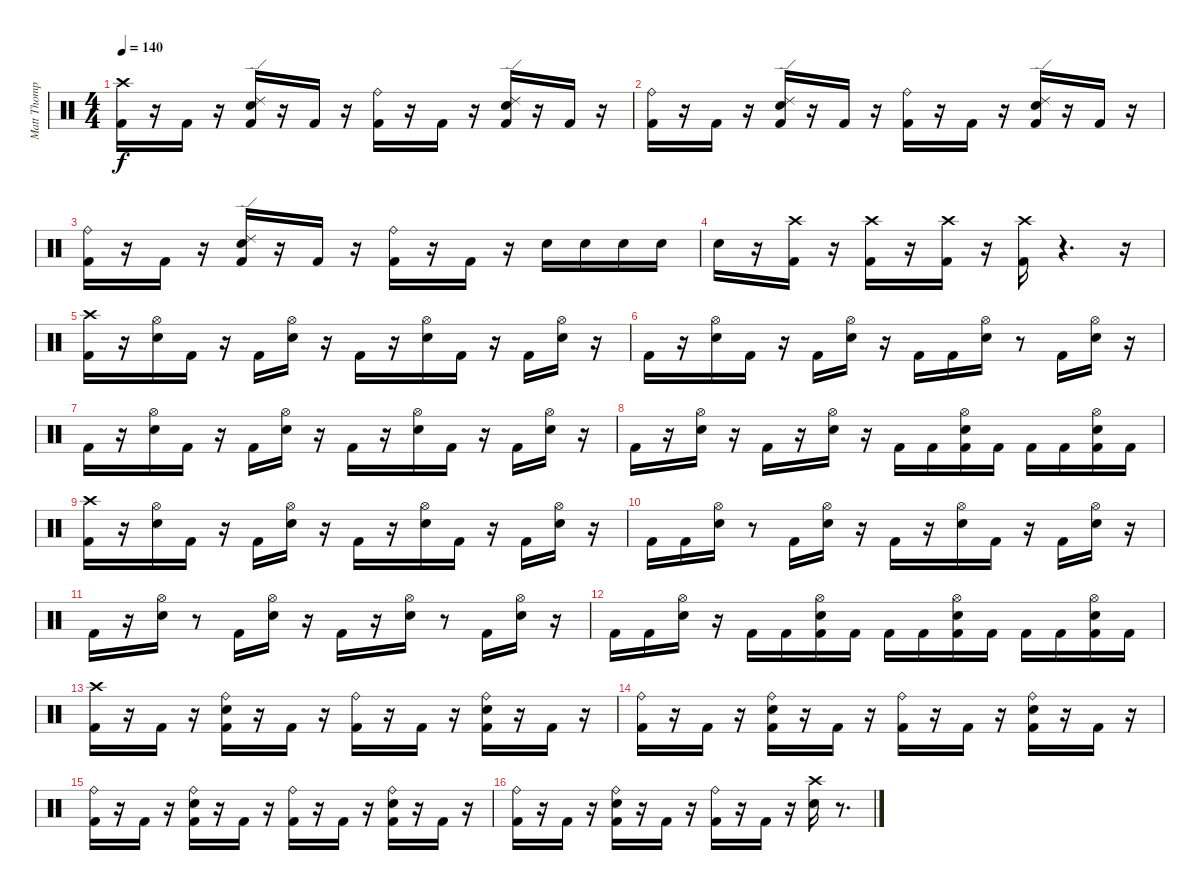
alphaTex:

\track ("Matt Thompson" "Matt Thomp") {instrument percussion}
\staff {score}
\articulation defaults
\ts (4 4)
\tempo 140
\clef neutral
\ks c
("Crash high (hit)" "Kick (hit) 2").16{dy f} r.16 "Kick (hit) 2".16 r.16 ("Ride (edge) 2" "Snare (hit) 2" "Kick (hit) 2").16 r.16 "Kick (hit) 2".16 r.16 ("Ride (bell)" "Kick (hit) 2").16 r.16 "Kick (hit) 2".16 r.16 ("Ride (edge) 2" "Snare (hit) 2" "Kick (hit) 2").16 r.16 "Kick (hit) 2".16 r.16 |
("Ride (bell)" "Kick (hit) 2").16 r.16 "Kick (hit) 2".16 r.16 ("Ride (edge) 2" "Snare (hit) 2" "Kick (hit) 2").16 r.16 "Kick (hit) 2".16 r.16 ("Ride (bell)" "Kick (hit) 2").16 r.16 "Kick (hit) 2".16 r.16 ("Ride (edge) 2" "Snare (hit) 2" "Kick (hit) 2").16 r.16 "Kick (hit) 2".16 r.16 |
("Ride (bell)" "Kick (hit) 2").16 r.16 "Kick (hit) 2".16 r.16 ("Ride (edge) 2" "Snare (hit) 2" "Kick (hit) 2").16 r.16 "Kick (hit) 2".16 r.16 ("Ride (bell)" "Kick (hit) 2").16 r.16 "Kick (hit) 2".16 r.16 "Snare (hit) 2".16 "Snare (hit) 2".16 "Snare (hit) 2".16 "Snare (hit) 2".16 |
"Snare (hit) 2".16 r.16 ("Crash high (hit)" "Kick (hit) 2").16 r.16 ("Crash high (hit)" "Kick (hit) 2").16 r.16 ("Crash high (hit)" "Kick (hit) 2").16 r.16 ("Crash high (hit)" "Kick (hit) 2").16 r.4{d} r.16 |
("Crash high (hit)" "Kick (hit) 2").16 r.16 ("Hi-Hat (open)" "Snare (hit) 2").16 "Kick (hit) 2".16 r.16 "Kick (hit) 2".16 ("Hi-Hat (open)" "Snare (hit) 2").16 r.16 "Kick (hit) 2".16 r.16 ("Hi-Hat (open)" "Snare (hit) 2").16 "Kick (hit) 2".16 r.16 "Kick (hit) 2".16 ("Hi-Hat (open)" "Snare (hit) 2").16 r.16 |
"Kick (hit) 2".16 r.16 ("Hi-Hat (open)" "Snare (hit) 2").16 "Kick (hit) 2".16 r.16 "Kick (hit) 2".16 ("Hi-Hat (open)" "Snare (hit) 2").16 r.16 "Kick (hit) 2".16 "Kick (hit) 2".16 ("Hi-Hat (open)" "Snare (hit) 2").16 r.8 "Kick (hit) 2".16 ("Hi-Hat (open)" "Snare (hit) 2").16 r.16 |
"Kick (hit) 2".16 r.16 ("Hi-Hat (open)" "Snare (hit) 2").16 "Kick (hit) 2".16 r.16 "Kick (hit) 2".16 ("Hi-Hat (open)" "Snare (hit) 2").16 r.16 "Kick (hit) 2".16 r.16 ("Hi-Hat (open)" "Snare (hit) 2").16 "Kick (hit) 2".16 r.16 "Kick (hit) 2".16 ("Hi-Hat (open)" "Snare (hit) 2").16 r.16 |
"Kick (hit) 2".16 r.16 ("Hi-Hat (open)" "Snare (hit) 2").16 r.16 "Kick (hit) 2".16 r.16 ("Hi-Hat (open)" "Snare (hit) 2").16 r.16 "Kick (hit) 2".16 "Kick (hit) 2".16 ("Hi-Hat (open)" "Kick (hit) 2" "Snare (hit) 2").16 "Kick (hit) 2".16 "Kick (hit) 2".16 "Kick (hit) 2".16 ("Hi-Hat (open)" "Kick (hit) 2" "Snare (hit) 2").16 "Kick (hit) 2".16 |
("Crash high (hit)" "Kick (hit) 2").16 r.16 ("Hi-Hat (open)" "Snare (hit) 2").16 "Kick (hit) 2".16 r.16 "Kick (hit) 2".16 ("Hi-Hat (open)" "Snare (hit) 2").16 r.16 "Kick (hit) 2".16 r.16 ("Hi-Hat (open)" "Snare (hit) 2").16 "Kick (hit) 2".16 r.16 "Kick (hit) 2".16 ("Hi-Hat (open)" "Snare (hit) 2").16 r.16 |
"Kick (hit) 2".16 "Kick (hit) 2".16 ("Hi-Hat (open)" "Snare (hit) 2").16 r.8 "Kick (hit) 2".16 ("Hi-Hat (open)" "Snare (hit) 2").16 r.16 "Kick (hit) 2".16 r.16 ("Hi-Hat (open)" "Snare (hit) 2").16 "Kick (hit) 2".16 r.16 "Kick (hit) 2".16 ("Hi-Hat (open)" "Snare (hit) 2").16 r.16 |
"Kick (hit) 2".16 r.16 ("Hi-Hat (open)" "Snare (hit) 2").16 r.8 "Kick (hit) 2".16 ("Hi-Hat (open)" "Snare (hit) 2").16 r.16 "Kick (hit) 2".16 r.16 ("Hi-Hat (open)" "Snare (hit) 2").16 r.8 "Kick (hit) 2".16 ("Hi-Hat (open)" "Snare (hit) 2").16 r.16 |
"Kick (hit) 2".16 "Kick (hit) 2".16 ("Hi-Hat (open)" "Snare (hit) 2").16 r.16 "Kick (hit) 2".16 "Kick (hit) 2".16 ("Hi-Hat (open)" "Kick (hit) 2" "Snare (hit) 2").16 "Kick (hit) 2".16 "Kick (hit) 2".16 "Kick (hit) 2".16 ("Hi-Hat (open)" "Kick (hit) 2" "Snare (hit) 2").16 "Kick (hit) 2".16 "Kick (hit) 2".16 "Kick (hit) 2".16 ("Hi-Hat (open)" "Kick (hit) 2" "Snare (hit) 2").16 "Kick (hit) 2".16 |
("Crash high (hit)" "Kick (hit) 2").16 r.16 "Kick (hit) 2".16 r.16 ("Ride (bell)" "Snare (hit) 2" "Kick (hit) 2").16 r.16 "Kick (hit) 2".16 r.16 ("Ride (bell)" "Kick (hit) 2").16 r.16 "Kick (hit) 2".16 r.16 ("Ride (bell)" "Snare (hit) 2" "Kick (hit) 2").16 r.16 "Kick (hit) 2".16 r.16 |
("Ride (bell)" "Kick (hit) 2").16 r.16 "Kick (hit) 2".16 r.16 ("Ride (bell)" "Snare (hit) 2" "Kick (hit) 2").16 r.16 "Kick (hit) 2".16 r.16 ("Ride (bell)" "Kick (hit) 2").16 r.16 "Kick (hit) 2".16 r.16 ("Ride (bell)" "Snare (hit) 2" "Kick (hit) 2").16 r.16 "Kick (hit) 2".16 r.16 |
("Ride (bell)" "Kick (hit) 2").16 r.16 "Kick (hit) 2".16 r.16 ("Ride (bell)" "Snare (hit) 2" "Kick (hit) 2").16 r.16 "Kick (hit) 2".16 r.16 ("Ride (bell)" "Kick (hit) 2").16 r.16 "Kick (hit) 2".16 r.16 ("Ride (bell)" "Snare (hit) 2" "Kick (hit) 2").16 r.16 "Kick (hit) 2".16 r.16 |
("Ride (bell)" "Kick (hit) 2").16 r.16 "Kick (hit) 2".16 r.16 ("Kick (hit) 2" "Ride (bell)" "Snare (hit) 2").16 r.16 "Kick (hit) 2".16 r.16 ("Ride (bell)" "Kick (hit) 2").16 r.16 "Kick (hit) 2".16 r.16 ("Crash high (hit)" "Snare (hit) 2").16 r.8{d}
